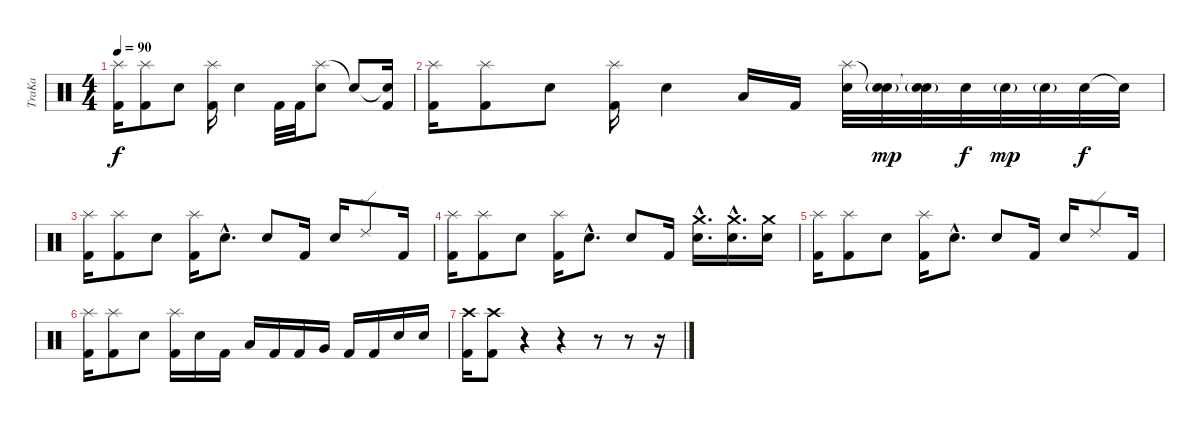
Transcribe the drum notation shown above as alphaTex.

\track ("TraKa" "TraKa") {instrument percussion}
\staff {score}
\articulation defaults
\ts (4 4)
\tempo 90
\clef neutral
\ks c
("Splash (hit)" "Kick (hit) 2").16{dy f} ("Splash (hit)" "Kick (hit) 2").8 "Electric Snare (hit)".8 ("Splash (hit)" "Kick (hit) 2").16 "Electric Snare (hit)".4 "Kick (hit) 2".32 "Kick (hit) 2".32 ("Splash (hit)" "Electric Snare (hit)").8 "Snare (hit)"{t}.8 ("Snare (hit)"{t} "Kick (hit) 2").16 |
("Splash (hit)" "Kick (hit) 2").16 ("Splash (hit)" "Kick (hit) 2").8 "Electric Snare (hit)".8 ("Splash (hit)" "Kick (hit) 2").16 "Electric Snare (hit)".4 "Low Tom (hit)".16 "Kick (hit) 2".16 ("Splash (hit)" "Electric Snare (hit)").32 ("Snare (hit)"{t} "Electric Snare (hit)"{g}).32{dy mp} ("Snare (hit)"{t} "Electric Snare (hit)"{g}).32 "Electric Snare (hit)".32{dy f} "Electric Snare (hit)"{g}.32{dy mp} "Electric Snare (hit)"{g}.32 "Electric Snare (hit)".32{dy f} "Snare (hit)"{t}.32 |
("Splash (hit)" "Kick (hit) 2").16 ("Splash (hit)" "Kick (hit) 2").8 "Electric Snare (hit)".8 ("Splash (hit)" "Kick (hit) 2").16 "Electric Snare (hit)"{hac}.8{d} "Electric Snare (hit)".8 "Kick (hit) 2".16 "Electric Snare (hit)".16 "Ride (edge) 2".8 "Kick (hit) 2".16 |
("Splash (hit)" "Kick (hit) 2").16 ("Splash (hit)" "Kick (hit) 2").8 "Electric Snare (hit)".8 ("Splash (hit)" "Kick (hit) 2").16 "Electric Snare (hit)"{hac}.8{d} "Electric Snare (hit)".8 "Kick (hit) 2".16 ("Crash medium (hit)"{hac} "Electric Snare (hit)"{hac}).16{d} ("Crash medium (hit)"{hac} "Electric Snare (hit)"{hac}).16{d} ("Crash medium (hit)" "Electric Snare (hit)").16 |
("Splash (hit)" "Kick (hit) 2").16 ("Splash (hit)" "Kick (hit) 2").8 "Electric Snare (hit)".8 ("Splash (hit)" "Kick (hit) 2").16 "Electric Snare (hit)"{hac}.8{d} "Electric Snare (hit)".8 "Kick (hit) 2".16 "Electric Snare (hit)".16 "Ride (edge) 2".8 "Kick (hit) 2".16 |
("Splash (hit)" "Kick (hit) 2").16 ("Splash (hit)" "Kick (hit) 2").8 "Electric Snare (hit)".8 ("Splash (hit)" "Kick (hit) 2").16 "Electric Snare (hit)".16 "Kick (hit) 2".16 "Low Tom (hit)".16 "Kick (hit) 2".16 "Kick (hit) 2".16 "Very Low Tom (hit)".16 "Kick (hit) 2".16 "Kick (hit) 2".16 "Electric Snare (hit)".16 "Electric Snare (hit)".16 |
("Crash high (hit)" "Kick (hit) 2").16 ("Crash high (hit)" "Kick (hit) 2").8 r.4 r.4 r.8 r.8 r.16
